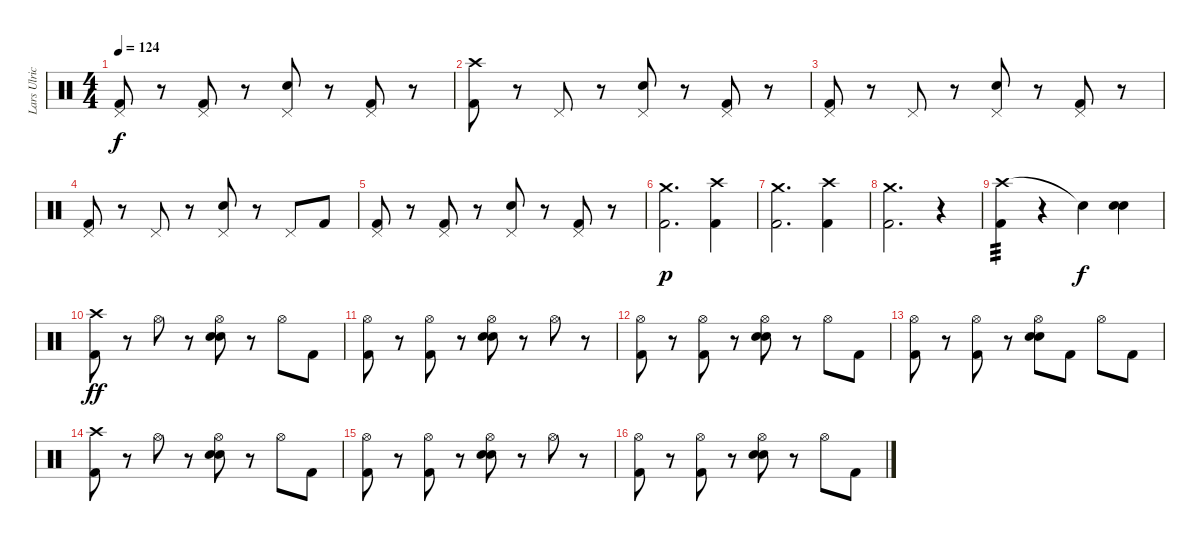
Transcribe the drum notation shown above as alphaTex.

\track ("Lars Ulrich" "Lars Ulric") {instrument percussion}
\staff {score}
\articulation defaults
\ts (4 4)
\tempo 124
\clef neutral
\ks c
("Pedal Hi-Hat (hit)" "Kick (hit) 2").8{dy f} r.8 ("Pedal Hi-Hat (hit)" "Kick (hit) 2").8 r.8 ("Pedal Hi-Hat (hit)" "Electric Snare (hit)").8 r.8 ("Pedal Hi-Hat (hit)" "Kick (hit) 2").8 r.8 |
("Crash high (hit)" "Kick (hit) 2").8 r.8 "Pedal Hi-Hat (hit)".8 r.8 ("Pedal Hi-Hat (hit)" "Electric Snare (hit)").8 r.8 ("Pedal Hi-Hat (hit)" "Kick (hit) 2").8 r.8 |
("Pedal Hi-Hat (hit)" "Kick (hit) 2").8 r.8 "Pedal Hi-Hat (hit)".8 r.8 ("Pedal Hi-Hat (hit)" "Electric Snare (hit)").8 r.8 ("Pedal Hi-Hat (hit)" "Kick (hit) 2").8 r.8 |
("Pedal Hi-Hat (hit)" "Kick (hit) 2").8 r.8 "Pedal Hi-Hat (hit)".8 r.8 ("Pedal Hi-Hat (hit)" "Electric Snare (hit)").8 r.8 "Pedal Hi-Hat (hit)".8 "Kick (hit) 2".8 |
("Pedal Hi-Hat (hit)" "Kick (hit) 2").8 r.8 ("Pedal Hi-Hat (hit)" "Kick (hit) 2").8 r.8 ("Pedal Hi-Hat (hit)" "Electric Snare (hit)").8 r.8 ("Pedal Hi-Hat (hit)" "Kick (hit) 2").8 r.8 |
("Crash medium (hit)" "Kick (hit) 2").2{d dy p} ("Crash high (hit)" "Kick (hit) 2").4 |
("Crash medium (hit)" "Kick (hit) 2").2{d} ("Crash high (hit)" "Kick (hit) 2").4 |
("Crash medium (hit)" "Kick (hit) 2").2{d} r.4 |
("Crash high (hit)" "Kick (hit) 2").4{tp 3} r.4 "Snare (hit)"{t}.4{dy f} ("Electric Snare (hit)" "Electric Snare (hit)").4{bd 60} |
("Crash high (hit)" "Kick (hit) 2").8{dy ff} r.8 "Hi-Hat (open)".8 r.8 ("Hi-Hat (open)" "Electric Snare (hit)" "Electric Snare (hit)").8 r.8 "Hi-Hat (open)".8 "Kick (hit) 2".8 |
("Hi-Hat (open)" "Kick (hit) 2").8 r.8 ("Hi-Hat (open)" "Kick (hit) 2").8 r.8 ("Hi-Hat (open)" "Electric Snare (hit)" "Electric Snare (hit)").8 r.8 "Hi-Hat (open)".8 r.8 |
("Hi-Hat (open)" "Kick (hit) 2").8 r.8 ("Hi-Hat (open)" "Kick (hit) 2").8 r.8 ("Hi-Hat (open)" "Electric Snare (hit)" "Electric Snare (hit)").8 r.8 "Hi-Hat (open)".8 "Kick (hit) 2".8 |
("Hi-Hat (open)" "Kick (hit) 2").8 r.8 ("Hi-Hat (open)" "Kick (hit) 2").8 r.8 ("Hi-Hat (open)" "Electric Snare (hit)" "Electric Snare (hit)").8 "Kick (hit) 2".8 "Hi-Hat (open)".8 "Kick (hit) 2".8 |
("Crash high (hit)" "Kick (hit) 2").8 r.8 "Hi-Hat (open)".8 r.8 ("Hi-Hat (open)" "Electric Snare (hit)" "Electric Snare (hit)").8 r.8 "Hi-Hat (open)".8 "Kick (hit) 2".8 |
("Hi-Hat (open)" "Kick (hit) 2").8 r.8 ("Hi-Hat (open)" "Kick (hit) 2").8 r.8 ("Hi-Hat (open)" "Electric Snare (hit)" "Electric Snare (hit)").8 r.8 "Hi-Hat (open)".8 r.8 |
("Hi-Hat (open)" "Kick (hit) 2").8 r.8 ("Hi-Hat (open)" "Kick (hit) 2").8 r.8 ("Hi-Hat (open)" "Electric Snare (hit)" "Electric Snare (hit)").8 r.8 "Hi-Hat (open)".8 "Kick (hit) 2".8
